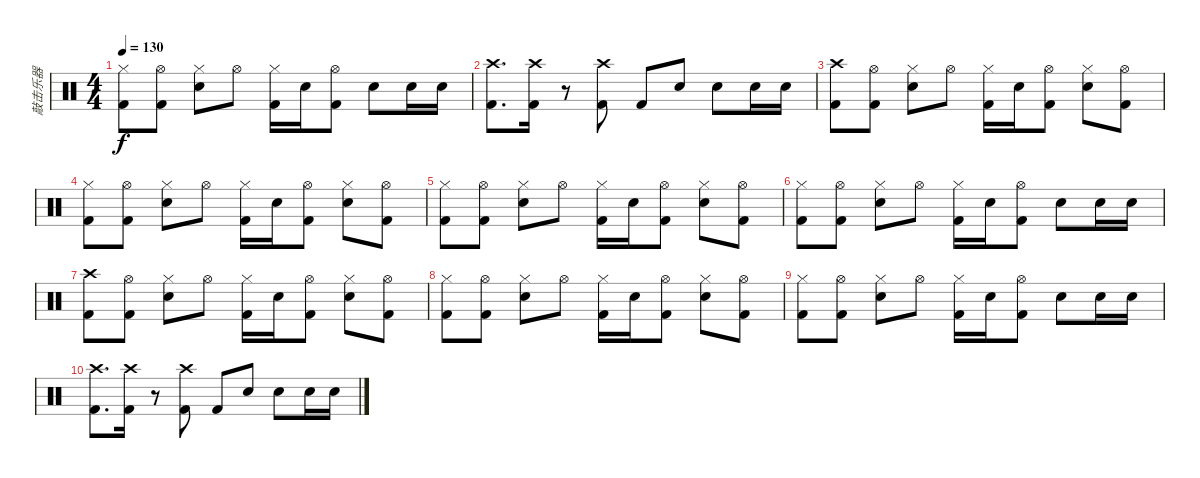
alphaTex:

\track ("敲击乐器" "敲击乐器") {instrument percussion}
\staff {score}
\articulation defaults
\ts (4 4)
\tempo 130
\clef neutral
\ks c
("Hi-Hat (closed)" "Kick (hit) 2").8{dy f} ("Hi-Hat (open)" "Kick (hit) 2").8 ("Hi-Hat (closed)" "Electric Snare (hit)").8 "Hi-Hat (open)".8 ("Hi-Hat (closed)" "Kick (hit) 2").16 "Electric Snare (hit)".16 ("Hi-Hat (open)" "Kick (hit) 2").8 "Electric Snare (hit)".8 "Electric Snare (hit)".16 "Electric Snare (hit)".16 |
("Crash high (hit)" "Kick (hit) 2").8{d} ("Crash high (hit)" "Kick (hit) 2").16 r.8 ("Crash high (hit)" "Kick (hit) 2").8 "Kick (hit) 2".8 "Electric Snare (hit)".8 "Electric Snare (hit)".8 "Electric Snare (hit)".16 "Electric Snare (hit)".16 |
("Crash high (hit)" "Kick (hit) 2").8 ("Hi-Hat (open)" "Kick (hit) 2").8 ("Hi-Hat (closed)" "Electric Snare (hit)").8 "Hi-Hat (open)".8 ("Hi-Hat (closed)" "Kick (hit) 2").16 "Electric Snare (hit)".16 ("Hi-Hat (open)" "Kick (hit) 2").8 ("Hi-Hat (closed)" "Electric Snare (hit)").8 ("Hi-Hat (open)" "Kick (hit) 2").8 |
("Hi-Hat (closed)" "Kick (hit) 2").8 ("Hi-Hat (open)" "Kick (hit) 2").8 ("Hi-Hat (closed)" "Electric Snare (hit)").8 "Hi-Hat (open)".8 ("Hi-Hat (closed)" "Kick (hit) 2").16 "Electric Snare (hit)".16 ("Hi-Hat (open)" "Kick (hit) 2").8 ("Hi-Hat (closed)" "Electric Snare (hit)").8 ("Hi-Hat (open)" "Kick (hit) 2").8 |
("Hi-Hat (closed)" "Kick (hit) 2").8 ("Hi-Hat (open)" "Kick (hit) 2").8 ("Hi-Hat (closed)" "Electric Snare (hit)").8 "Hi-Hat (open)".8 ("Hi-Hat (closed)" "Kick (hit) 2").16 "Electric Snare (hit)".16 ("Hi-Hat (open)" "Kick (hit) 2").8 ("Hi-Hat (closed)" "Electric Snare (hit)").8 ("Hi-Hat (open)" "Kick (hit) 2").8 |
("Hi-Hat (closed)" "Kick (hit) 2").8 ("Hi-Hat (open)" "Kick (hit) 2").8 ("Hi-Hat (closed)" "Electric Snare (hit)").8 "Hi-Hat (open)".8 ("Hi-Hat (closed)" "Kick (hit) 2").16 "Electric Snare (hit)".16 ("Hi-Hat (open)" "Kick (hit) 2").8 "Electric Snare (hit)".8 "Electric Snare (hit)".16 "Electric Snare (hit)".16 |
("Crash high (hit)" "Kick (hit) 2").8 ("Hi-Hat (open)" "Kick (hit) 2").8 ("Hi-Hat (closed)" "Electric Snare (hit)").8 "Hi-Hat (open)".8 ("Hi-Hat (closed)" "Kick (hit) 2").16 "Electric Snare (hit)".16 ("Hi-Hat (open)" "Kick (hit) 2").8 ("Hi-Hat (closed)" "Electric Snare (hit)").8 ("Hi-Hat (open)" "Kick (hit) 2").8 |
("Hi-Hat (closed)" "Kick (hit) 2").8 ("Hi-Hat (open)" "Kick (hit) 2").8 ("Hi-Hat (closed)" "Electric Snare (hit)").8 "Hi-Hat (open)".8 ("Hi-Hat (closed)" "Kick (hit) 2").16 "Electric Snare (hit)".16 ("Hi-Hat (open)" "Kick (hit) 2").8 ("Hi-Hat (closed)" "Electric Snare (hit)").8 ("Hi-Hat (open)" "Kick (hit) 2").8 |
("Hi-Hat (closed)" "Kick (hit) 2").8 ("Hi-Hat (open)" "Kick (hit) 2").8 ("Hi-Hat (closed)" "Electric Snare (hit)").8 "Hi-Hat (open)".8 ("Hi-Hat (closed)" "Kick (hit) 2").16 "Electric Snare (hit)".16 ("Hi-Hat (open)" "Kick (hit) 2").8 "Electric Snare (hit)".8 "Electric Snare (hit)".16 "Electric Snare (hit)".16 |
("Crash high (hit)" "Kick (hit) 2").8{d} ("Crash high (hit)" "Kick (hit) 2").16 r.8 ("Crash high (hit)" "Kick (hit) 2").8 "Kick (hit) 2".8 "Electric Snare (hit)".8 "Electric Snare (hit)".8 "Electric Snare (hit)".16 "Electric Snare (hit)".16
